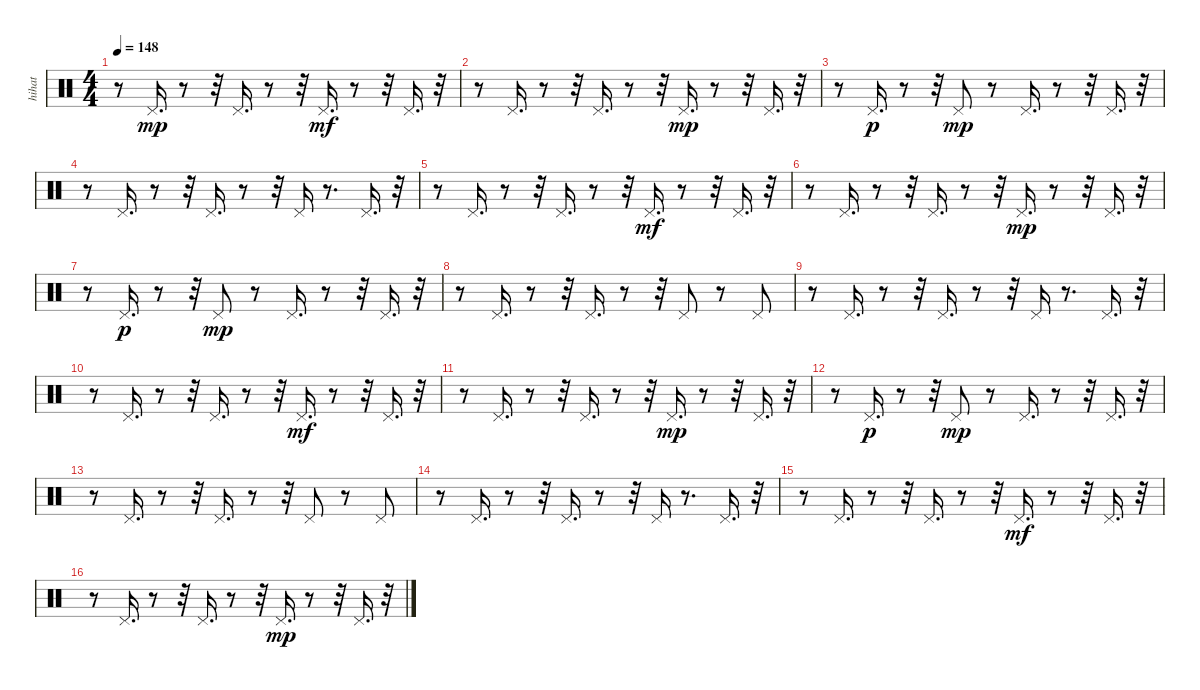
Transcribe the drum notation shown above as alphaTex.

\track ("hihat               " "hihat     ") {instrument percussion}
\staff {score}
\articulation defaults
\ts (4 4)
\tempo 148
\clef neutral
\ks c
r.8{dy mp} "Pedal Hi-Hat (hit)".16{d} r.8 r.32 "Pedal Hi-Hat (hit)".16{d} r.8 r.32 "Pedal Hi-Hat (hit)".16{d dy mf} r.8 r.32 "Pedal Hi-Hat (hit)".16{d} r.32 |
r.8 "Pedal Hi-Hat (hit)".16{d} r.8 r.32 "Pedal Hi-Hat (hit)".16{d} r.8 r.32 "Pedal Hi-Hat (hit)".16{d dy mp} r.8 r.32 "Pedal Hi-Hat (hit)".16{d} r.32 |
r.8 "Pedal Hi-Hat (hit)".16{d dy p} r.8 r.32 "Pedal Hi-Hat (hit)".8{dy mp} r.8 "Pedal Hi-Hat (hit)".16{d} r.8 r.32 "Pedal Hi-Hat (hit)".16{d} r.32 |
r.8 "Pedal Hi-Hat (hit)".16{d} r.8 r.32 "Pedal Hi-Hat (hit)".16{d} r.8 r.32 "Pedal Hi-Hat (hit)".16 r.8{d} "Pedal Hi-Hat (hit)".16{d} r.32 |
r.8 "Pedal Hi-Hat (hit)".16{d} r.8 r.32 "Pedal Hi-Hat (hit)".16{d} r.8 r.32 "Pedal Hi-Hat (hit)".16{d dy mf} r.8 r.32 "Pedal Hi-Hat (hit)".16{d} r.32 |
r.8 "Pedal Hi-Hat (hit)".16{d} r.8 r.32 "Pedal Hi-Hat (hit)".16{d} r.8 r.32 "Pedal Hi-Hat (hit)".16{d dy mp} r.8 r.32 "Pedal Hi-Hat (hit)".16{d} r.32 |
r.8 "Pedal Hi-Hat (hit)".16{d dy p} r.8 r.32 "Pedal Hi-Hat (hit)".8{dy mp} r.8 "Pedal Hi-Hat (hit)".16{d} r.8 r.32 "Pedal Hi-Hat (hit)".16{d} r.32 |
r.8 "Pedal Hi-Hat (hit)".16{d} r.8 r.32 "Pedal Hi-Hat (hit)".16{d} r.8 r.32 "Pedal Hi-Hat (hit)".8 r.8 "Pedal Hi-Hat (hit)".8 |
r.8 "Pedal Hi-Hat (hit)".16{d} r.8 r.32 "Pedal Hi-Hat (hit)".16{d} r.8 r.32 "Pedal Hi-Hat (hit)".16 r.8{d} "Pedal Hi-Hat (hit)".16{d} r.32 |
r.8 "Pedal Hi-Hat (hit)".16{d} r.8 r.32 "Pedal Hi-Hat (hit)".16{d} r.8 r.32 "Pedal Hi-Hat (hit)".16{d dy mf} r.8 r.32 "Pedal Hi-Hat (hit)".16{d} r.32 |
r.8 "Pedal Hi-Hat (hit)".16{d} r.8 r.32 "Pedal Hi-Hat (hit)".16{d} r.8 r.32 "Pedal Hi-Hat (hit)".16{d dy mp} r.8 r.32 "Pedal Hi-Hat (hit)".16{d} r.32 |
r.8 "Pedal Hi-Hat (hit)".16{d dy p} r.8 r.32 "Pedal Hi-Hat (hit)".8{dy mp} r.8 "Pedal Hi-Hat (hit)".16{d} r.8 r.32 "Pedal Hi-Hat (hit)".16{d} r.32 |
r.8 "Pedal Hi-Hat (hit)".16{d} r.8 r.32 "Pedal Hi-Hat (hit)".16{d} r.8 r.32 "Pedal Hi-Hat (hit)".8 r.8 "Pedal Hi-Hat (hit)".8 |
r.8 "Pedal Hi-Hat (hit)".16{d} r.8 r.32 "Pedal Hi-Hat (hit)".16{d} r.8 r.32 "Pedal Hi-Hat (hit)".16 r.8{d} "Pedal Hi-Hat (hit)".16{d} r.32 |
r.8 "Pedal Hi-Hat (hit)".16{d} r.8 r.32 "Pedal Hi-Hat (hit)".16{d} r.8 r.32 "Pedal Hi-Hat (hit)".16{d dy mf} r.8 r.32 "Pedal Hi-Hat (hit)".16{d} r.32 |
r.8 "Pedal Hi-Hat (hit)".16{d} r.8 r.32 "Pedal Hi-Hat (hit)".16{d} r.8 r.32 "Pedal Hi-Hat (hit)".16{d dy mp} r.8 r.32 "Pedal Hi-Hat (hit)".16{d} r.32
